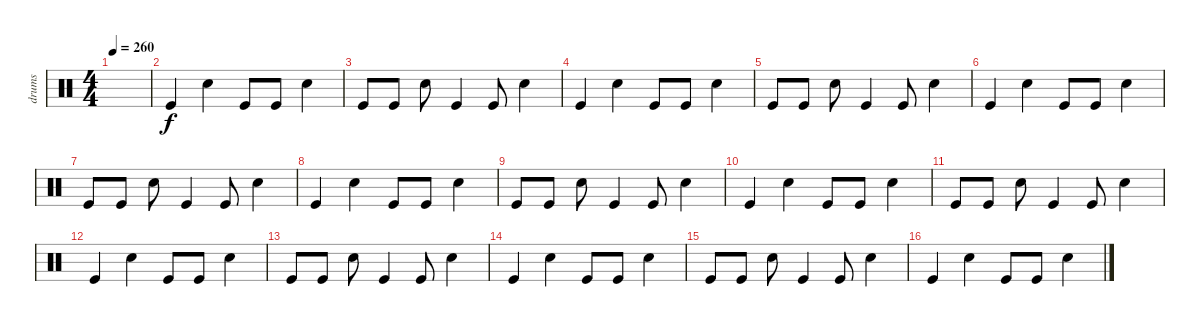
\track ("drums" "drums") {instrument percussion}
\staff {score}
\articulation defaults
\ts (4 4)
\tempo 260
\clef neutral
\ks c
|
"Kick (hit)".4 "Snare (hit) 2".4 "Kick (hit)".8 "Kick (hit)".8 "Snare (hit) 2".4 |
"Kick (hit)".8 "Kick (hit)".8 "Snare (hit) 2".8 "Kick (hit)".4 "Kick (hit)".8 "Snare (hit) 2".4 |
"Kick (hit)".4 "Snare (hit) 2".4 "Kick (hit)".8 "Kick (hit)".8 "Snare (hit) 2".4 |
"Kick (hit)".8 "Kick (hit)".8 "Snare (hit) 2".8 "Kick (hit)".4 "Kick (hit)".8 "Snare (hit) 2".4 |
"Kick (hit)".4 "Snare (hit) 2".4 "Kick (hit)".8 "Kick (hit)".8 "Snare (hit) 2".4 |
"Kick (hit)".8 "Kick (hit)".8 "Snare (hit) 2".8 "Kick (hit)".4 "Kick (hit)".8 "Snare (hit) 2".4 |
"Kick (hit)".4 "Snare (hit) 2".4 "Kick (hit)".8 "Kick (hit)".8 "Snare (hit) 2".4 |
"Kick (hit)".8 "Kick (hit)".8 "Snare (hit) 2".8 "Kick (hit)".4 "Kick (hit)".8 "Snare (hit) 2".4 |
"Kick (hit)".4 "Snare (hit) 2".4 "Kick (hit)".8 "Kick (hit)".8 "Snare (hit) 2".4 |
"Kick (hit)".8 "Kick (hit)".8 "Snare (hit) 2".8 "Kick (hit)".4 "Kick (hit)".8 "Snare (hit) 2".4 |
"Kick (hit)".4 "Snare (hit) 2".4 "Kick (hit)".8 "Kick (hit)".8 "Snare (hit) 2".4 |
"Kick (hit)".8 "Kick (hit)".8 "Snare (hit) 2".8 "Kick (hit)".4 "Kick (hit)".8 "Snare (hit) 2".4 |
"Kick (hit)".4 "Snare (hit) 2".4 "Kick (hit)".8 "Kick (hit)".8 "Snare (hit) 2".4 |
"Kick (hit)".8 "Kick (hit)".8 "Snare (hit) 2".8 "Kick (hit)".4 "Kick (hit)".8 "Snare (hit) 2".4 |
"Kick (hit)".4 "Snare (hit) 2".4 "Kick (hit)".8 "Kick (hit)".8 "Snare (hit) 2".4
